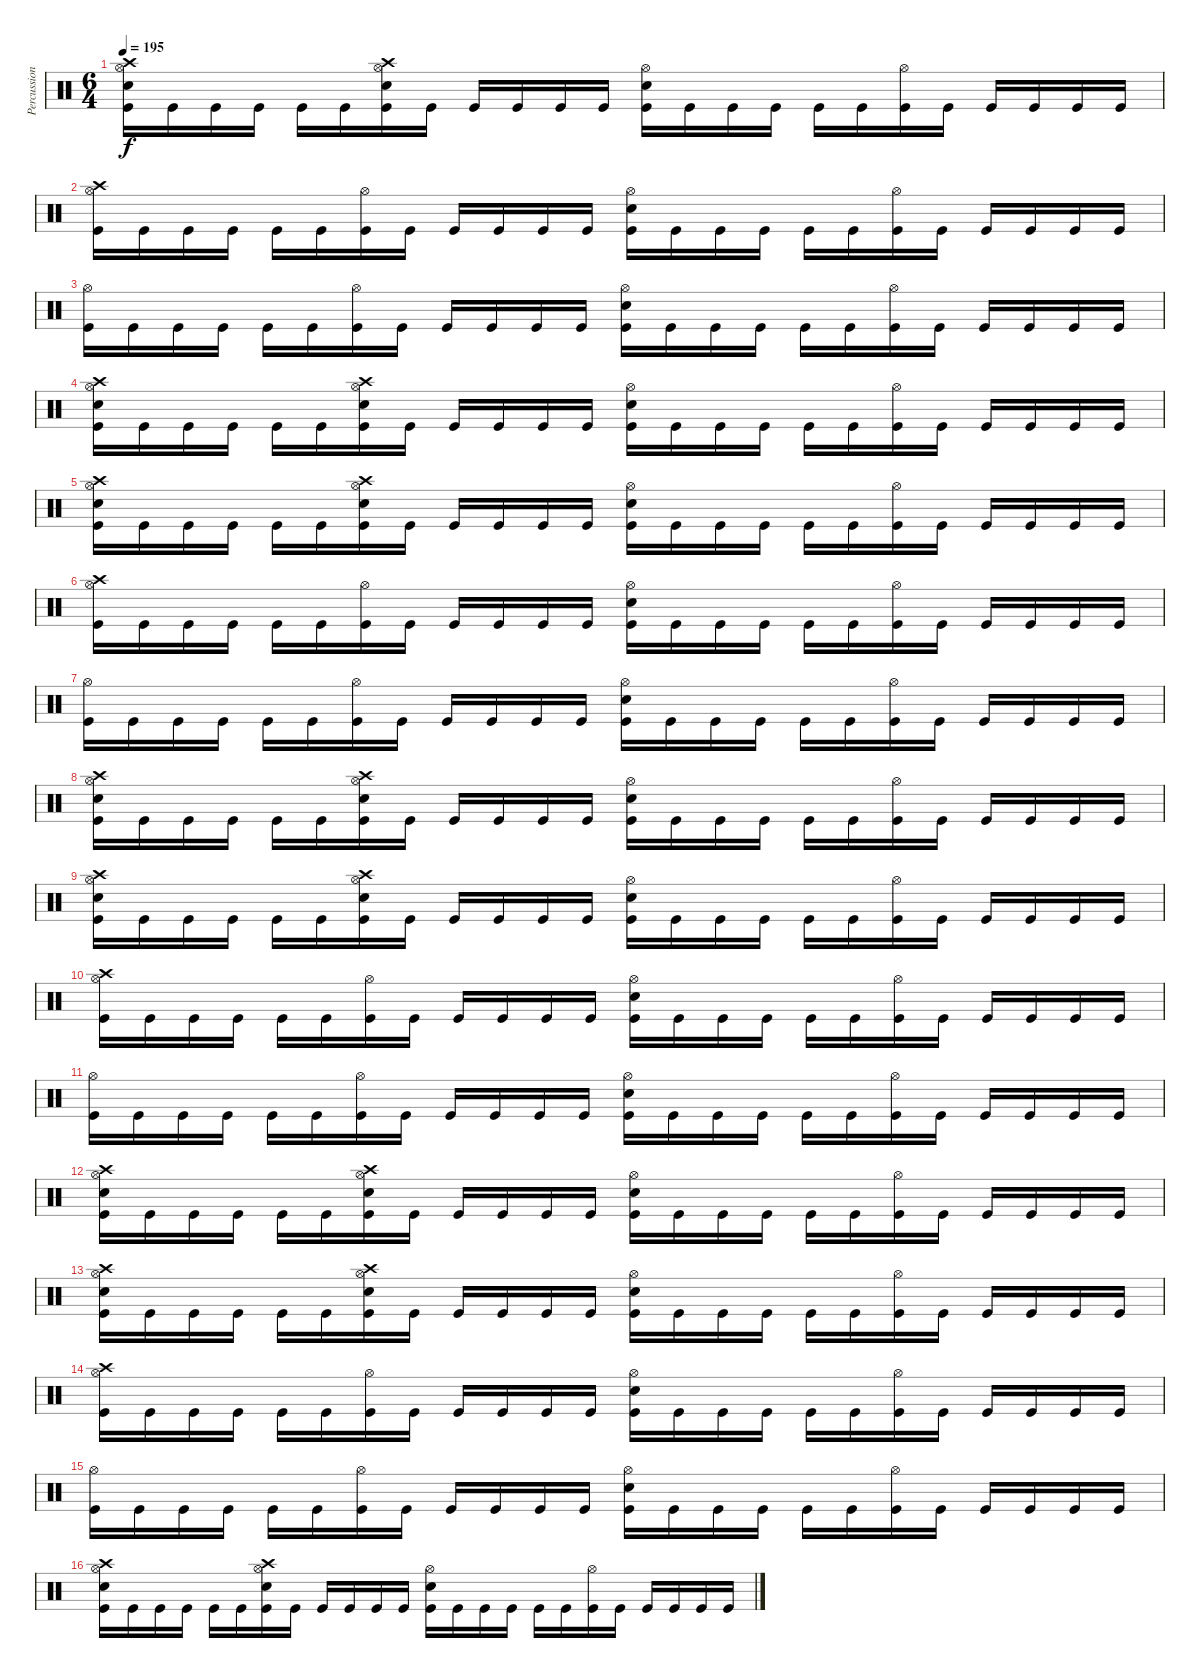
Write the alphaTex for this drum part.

\track ("Percussion" "Percussion") {instrument percussion}
\staff {score}
\articulation defaults
\ts (6 4)
\tempo 195
\clef neutral
\ks c
("Crash high (hit)" "Hi-Hat (open)" "Electric Snare (hit)" "Kick (hit)").16{dy f} "Kick (hit)".16 "Kick (hit)".16 "Kick (hit)".16 "Kick (hit)".16 "Kick (hit)".16 ("Crash high (hit)" "Hi-Hat (open)" "Electric Snare (hit)" "Kick (hit)").16 "Kick (hit)".16 "Kick (hit)".16 "Kick (hit)".16 "Kick (hit)".16 "Kick (hit)".16 ("Hi-Hat (open)" "Electric Snare (hit)" "Kick (hit)").16 "Kick (hit)".16 "Kick (hit)".16 "Kick (hit)".16 "Kick (hit)".16 "Kick (hit)".16 ("Hi-Hat (open)" "Kick (hit)").16 "Kick (hit)".16 "Kick (hit)".16 "Kick (hit)".16 "Kick (hit)".16 "Kick (hit)".16 |
("Crash high (hit)" "Hi-Hat (open)" "Kick (hit)").16 "Kick (hit)".16 "Kick (hit)".16 "Kick (hit)".16 "Kick (hit)".16 "Kick (hit)".16 ("Hi-Hat (open)" "Kick (hit)").16 "Kick (hit)".16 "Kick (hit)".16 "Kick (hit)".16 "Kick (hit)".16 "Kick (hit)".16 ("Hi-Hat (open)" "Electric Snare (hit)" "Kick (hit)").16 "Kick (hit)".16 "Kick (hit)".16 "Kick (hit)".16 "Kick (hit)".16 "Kick (hit)".16 ("Hi-Hat (open)" "Kick (hit)").16 "Kick (hit)".16 "Kick (hit)".16 "Kick (hit)".16 "Kick (hit)".16 "Kick (hit)".16 |
("Hi-Hat (open)" "Kick (hit)").16 "Kick (hit)".16 "Kick (hit)".16 "Kick (hit)".16 "Kick (hit)".16 "Kick (hit)".16 ("Hi-Hat (open)" "Kick (hit)").16 "Kick (hit)".16 "Kick (hit)".16 "Kick (hit)".16 "Kick (hit)".16 "Kick (hit)".16 ("Hi-Hat (open)" "Electric Snare (hit)" "Kick (hit)").16 "Kick (hit)".16 "Kick (hit)".16 "Kick (hit)".16 "Kick (hit)".16 "Kick (hit)".16 ("Hi-Hat (open)" "Kick (hit)").16 "Kick (hit)".16 "Kick (hit)".16 "Kick (hit)".16 "Kick (hit)".16 "Kick (hit)".16 |
("Crash high (hit)" "Hi-Hat (open)" "Electric Snare (hit)" "Kick (hit)").16 "Kick (hit)".16 "Kick (hit)".16 "Kick (hit)".16 "Kick (hit)".16 "Kick (hit)".16 ("Crash high (hit)" "Hi-Hat (open)" "Electric Snare (hit)" "Kick (hit)").16 "Kick (hit)".16 "Kick (hit)".16 "Kick (hit)".16 "Kick (hit)".16 "Kick (hit)".16 ("Hi-Hat (open)" "Electric Snare (hit)" "Kick (hit)").16 "Kick (hit)".16 "Kick (hit)".16 "Kick (hit)".16 "Kick (hit)".16 "Kick (hit)".16 ("Hi-Hat (open)" "Kick (hit)").16 "Kick (hit)".16 "Kick (hit)".16 "Kick (hit)".16 "Kick (hit)".16 "Kick (hit)".16 |
("Crash high (hit)" "Hi-Hat (open)" "Electric Snare (hit)" "Kick (hit)").16 "Kick (hit)".16 "Kick (hit)".16 "Kick (hit)".16 "Kick (hit)".16 "Kick (hit)".16 ("Crash high (hit)" "Hi-Hat (open)" "Electric Snare (hit)" "Kick (hit)").16 "Kick (hit)".16 "Kick (hit)".16 "Kick (hit)".16 "Kick (hit)".16 "Kick (hit)".16 ("Hi-Hat (open)" "Electric Snare (hit)" "Kick (hit)").16 "Kick (hit)".16 "Kick (hit)".16 "Kick (hit)".16 "Kick (hit)".16 "Kick (hit)".16 ("Hi-Hat (open)" "Kick (hit)").16 "Kick (hit)".16 "Kick (hit)".16 "Kick (hit)".16 "Kick (hit)".16 "Kick (hit)".16 |
("Crash high (hit)" "Hi-Hat (open)" "Kick (hit)").16 "Kick (hit)".16 "Kick (hit)".16 "Kick (hit)".16 "Kick (hit)".16 "Kick (hit)".16 ("Hi-Hat (open)" "Kick (hit)").16 "Kick (hit)".16 "Kick (hit)".16 "Kick (hit)".16 "Kick (hit)".16 "Kick (hit)".16 ("Hi-Hat (open)" "Electric Snare (hit)" "Kick (hit)").16 "Kick (hit)".16 "Kick (hit)".16 "Kick (hit)".16 "Kick (hit)".16 "Kick (hit)".16 ("Hi-Hat (open)" "Kick (hit)").16 "Kick (hit)".16 "Kick (hit)".16 "Kick (hit)".16 "Kick (hit)".16 "Kick (hit)".16 |
("Hi-Hat (open)" "Kick (hit)").16 "Kick (hit)".16 "Kick (hit)".16 "Kick (hit)".16 "Kick (hit)".16 "Kick (hit)".16 ("Hi-Hat (open)" "Kick (hit)").16 "Kick (hit)".16 "Kick (hit)".16 "Kick (hit)".16 "Kick (hit)".16 "Kick (hit)".16 ("Hi-Hat (open)" "Electric Snare (hit)" "Kick (hit)").16 "Kick (hit)".16 "Kick (hit)".16 "Kick (hit)".16 "Kick (hit)".16 "Kick (hit)".16 ("Hi-Hat (open)" "Kick (hit)").16 "Kick (hit)".16 "Kick (hit)".16 "Kick (hit)".16 "Kick (hit)".16 "Kick (hit)".16 |
("Crash high (hit)" "Hi-Hat (open)" "Electric Snare (hit)" "Kick (hit)").16 "Kick (hit)".16 "Kick (hit)".16 "Kick (hit)".16 "Kick (hit)".16 "Kick (hit)".16 ("Crash high (hit)" "Hi-Hat (open)" "Electric Snare (hit)" "Kick (hit)").16 "Kick (hit)".16 "Kick (hit)".16 "Kick (hit)".16 "Kick (hit)".16 "Kick (hit)".16 ("Hi-Hat (open)" "Electric Snare (hit)" "Kick (hit)").16 "Kick (hit)".16 "Kick (hit)".16 "Kick (hit)".16 "Kick (hit)".16 "Kick (hit)".16 ("Hi-Hat (open)" "Kick (hit)").16 "Kick (hit)".16 "Kick (hit)".16 "Kick (hit)".16 "Kick (hit)".16 "Kick (hit)".16 |
("Crash high (hit)" "Hi-Hat (open)" "Electric Snare (hit)" "Kick (hit)").16 "Kick (hit)".16 "Kick (hit)".16 "Kick (hit)".16 "Kick (hit)".16 "Kick (hit)".16 ("Crash high (hit)" "Hi-Hat (open)" "Electric Snare (hit)" "Kick (hit)").16 "Kick (hit)".16 "Kick (hit)".16 "Kick (hit)".16 "Kick (hit)".16 "Kick (hit)".16 ("Hi-Hat (open)" "Electric Snare (hit)" "Kick (hit)").16 "Kick (hit)".16 "Kick (hit)".16 "Kick (hit)".16 "Kick (hit)".16 "Kick (hit)".16 ("Hi-Hat (open)" "Kick (hit)").16 "Kick (hit)".16 "Kick (hit)".16 "Kick (hit)".16 "Kick (hit)".16 "Kick (hit)".16 |
("Crash high (hit)" "Hi-Hat (open)" "Kick (hit)").16 "Kick (hit)".16 "Kick (hit)".16 "Kick (hit)".16 "Kick (hit)".16 "Kick (hit)".16 ("Hi-Hat (open)" "Kick (hit)").16 "Kick (hit)".16 "Kick (hit)".16 "Kick (hit)".16 "Kick (hit)".16 "Kick (hit)".16 ("Hi-Hat (open)" "Electric Snare (hit)" "Kick (hit)").16 "Kick (hit)".16 "Kick (hit)".16 "Kick (hit)".16 "Kick (hit)".16 "Kick (hit)".16 ("Hi-Hat (open)" "Kick (hit)").16 "Kick (hit)".16 "Kick (hit)".16 "Kick (hit)".16 "Kick (hit)".16 "Kick (hit)".16 |
("Hi-Hat (open)" "Kick (hit)").16 "Kick (hit)".16 "Kick (hit)".16 "Kick (hit)".16 "Kick (hit)".16 "Kick (hit)".16 ("Hi-Hat (open)" "Kick (hit)").16 "Kick (hit)".16 "Kick (hit)".16 "Kick (hit)".16 "Kick (hit)".16 "Kick (hit)".16 ("Hi-Hat (open)" "Electric Snare (hit)" "Kick (hit)").16 "Kick (hit)".16 "Kick (hit)".16 "Kick (hit)".16 "Kick (hit)".16 "Kick (hit)".16 ("Hi-Hat (open)" "Kick (hit)").16 "Kick (hit)".16 "Kick (hit)".16 "Kick (hit)".16 "Kick (hit)".16 "Kick (hit)".16 |
("Crash high (hit)" "Hi-Hat (open)" "Electric Snare (hit)" "Kick (hit)").16 "Kick (hit)".16 "Kick (hit)".16 "Kick (hit)".16 "Kick (hit)".16 "Kick (hit)".16 ("Crash high (hit)" "Hi-Hat (open)" "Electric Snare (hit)" "Kick (hit)").16 "Kick (hit)".16 "Kick (hit)".16 "Kick (hit)".16 "Kick (hit)".16 "Kick (hit)".16 ("Hi-Hat (open)" "Electric Snare (hit)" "Kick (hit)").16 "Kick (hit)".16 "Kick (hit)".16 "Kick (hit)".16 "Kick (hit)".16 "Kick (hit)".16 ("Hi-Hat (open)" "Kick (hit)").16 "Kick (hit)".16 "Kick (hit)".16 "Kick (hit)".16 "Kick (hit)".16 "Kick (hit)".16 |
("Crash high (hit)" "Hi-Hat (open)" "Electric Snare (hit)" "Kick (hit)").16 "Kick (hit)".16 "Kick (hit)".16 "Kick (hit)".16 "Kick (hit)".16 "Kick (hit)".16 ("Crash high (hit)" "Hi-Hat (open)" "Electric Snare (hit)" "Kick (hit)").16 "Kick (hit)".16 "Kick (hit)".16 "Kick (hit)".16 "Kick (hit)".16 "Kick (hit)".16 ("Hi-Hat (open)" "Electric Snare (hit)" "Kick (hit)").16 "Kick (hit)".16 "Kick (hit)".16 "Kick (hit)".16 "Kick (hit)".16 "Kick (hit)".16 ("Hi-Hat (open)" "Kick (hit)").16 "Kick (hit)".16 "Kick (hit)".16 "Kick (hit)".16 "Kick (hit)".16 "Kick (hit)".16 |
("Crash high (hit)" "Hi-Hat (open)" "Kick (hit)").16 "Kick (hit)".16 "Kick (hit)".16 "Kick (hit)".16 "Kick (hit)".16 "Kick (hit)".16 ("Hi-Hat (open)" "Kick (hit)").16 "Kick (hit)".16 "Kick (hit)".16 "Kick (hit)".16 "Kick (hit)".16 "Kick (hit)".16 ("Hi-Hat (open)" "Electric Snare (hit)" "Kick (hit)").16 "Kick (hit)".16 "Kick (hit)".16 "Kick (hit)".16 "Kick (hit)".16 "Kick (hit)".16 ("Hi-Hat (open)" "Kick (hit)").16 "Kick (hit)".16 "Kick (hit)".16 "Kick (hit)".16 "Kick (hit)".16 "Kick (hit)".16 |
("Hi-Hat (open)" "Kick (hit)").16 "Kick (hit)".16 "Kick (hit)".16 "Kick (hit)".16 "Kick (hit)".16 "Kick (hit)".16 ("Hi-Hat (open)" "Kick (hit)").16 "Kick (hit)".16 "Kick (hit)".16 "Kick (hit)".16 "Kick (hit)".16 "Kick (hit)".16 ("Hi-Hat (open)" "Electric Snare (hit)" "Kick (hit)").16 "Kick (hit)".16 "Kick (hit)".16 "Kick (hit)".16 "Kick (hit)".16 "Kick (hit)".16 ("Hi-Hat (open)" "Kick (hit)").16 "Kick (hit)".16 "Kick (hit)".16 "Kick (hit)".16 "Kick (hit)".16 "Kick (hit)".16 |
("Crash high (hit)" "Hi-Hat (open)" "Electric Snare (hit)" "Kick (hit)").16 "Kick (hit)".16 "Kick (hit)".16 "Kick (hit)".16 "Kick (hit)".16 "Kick (hit)".16 ("Crash high (hit)" "Hi-Hat (open)" "Electric Snare (hit)" "Kick (hit)").16 "Kick (hit)".16 "Kick (hit)".16 "Kick (hit)".16 "Kick (hit)".16 "Kick (hit)".16 ("Hi-Hat (open)" "Electric Snare (hit)" "Kick (hit)").16 "Kick (hit)".16 "Kick (hit)".16 "Kick (hit)".16 "Kick (hit)".16 "Kick (hit)".16 ("Hi-Hat (open)" "Kick (hit)").16 "Kick (hit)".16 "Kick (hit)".16 "Kick (hit)".16 "Kick (hit)".16 "Kick (hit)".16
